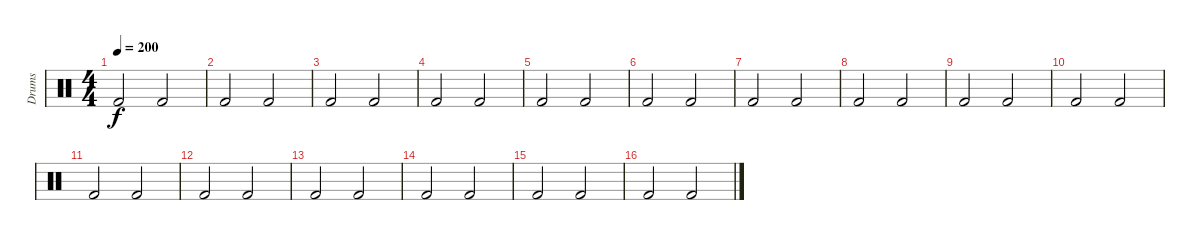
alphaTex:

\track ("Drums" "Drums") {instrument percussion}
\staff {score}
\articulation defaults
\ts (4 4)
\tempo 200
\clef neutral
\ks c "Kick (hit) 2".2{dy f} "Kick (hit) 2".2
|
"Kick (hit) 2".2 "Kick (hit) 2".2 |
"Kick (hit) 2".2 "Kick (hit) 2".2 |
"Kick (hit) 2".2 "Kick (hit) 2".2 |
"Kick (hit) 2".2 "Kick (hit) 2".2 |
"Kick (hit) 2".2 "Kick (hit) 2".2 |
"Kick (hit) 2".2 "Kick (hit) 2".2 |
"Kick (hit) 2".2 "Kick (hit) 2".2 |
"Kick (hit) 2".2 "Kick (hit) 2".2 |
"Kick (hit) 2".2 "Kick (hit) 2".2 |
"Kick (hit) 2".2 "Kick (hit) 2".2 |
"Kick (hit) 2".2 "Kick (hit) 2".2 |
"Kick (hit) 2".2 "Kick (hit) 2".2 |
"Kick (hit) 2".2 "Kick (hit) 2".2 |
"Kick (hit) 2".2 "Kick (hit) 2".2 |
"Kick (hit) 2".2 "Kick (hit) 2".2
